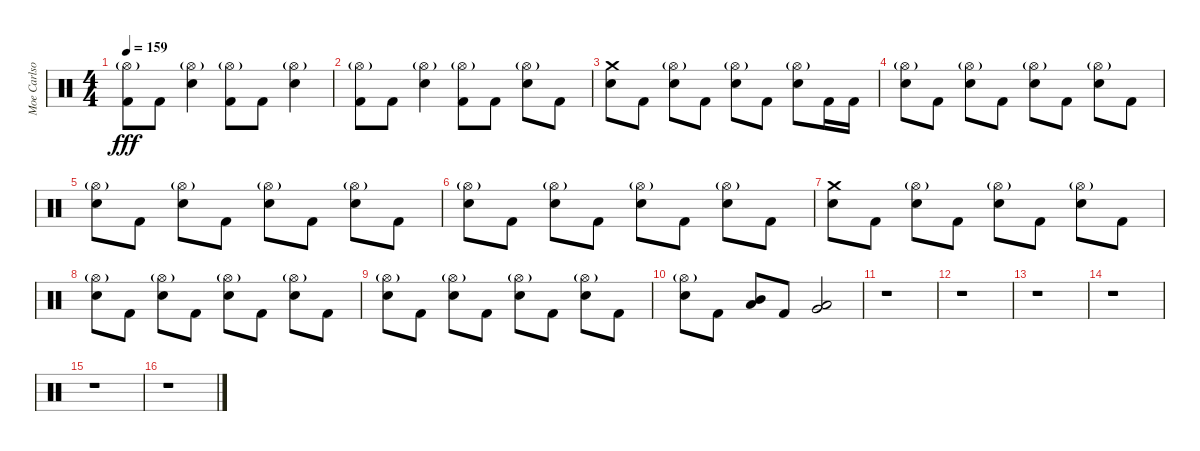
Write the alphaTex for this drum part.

\track ("Moe Carlson" "Moe Carlso") {instrument percussion}
\staff {score}
\articulation defaults
\ts (4 4)
\tempo 159
\clef neutral
\ks c
("Hi-Hat (open)"{g} "Kick (hit) 2").8{dy fff} "Kick (hit) 2".8 ("Hi-Hat (open)"{g} "Electric Snare (hit)").4 ("Hi-Hat (open)"{g} "Kick (hit) 2").8 "Kick (hit) 2".8 ("Hi-Hat (open)"{g} "Electric Snare (hit)").4 |
("Hi-Hat (open)"{g} "Kick (hit) 2").8 "Kick (hit) 2".8 ("Hi-Hat (open)"{g} "Electric Snare (hit)").4 ("Hi-Hat (open)"{g} "Kick (hit) 2").8 "Kick (hit) 2".8 ("Hi-Hat (open)"{g} "Electric Snare (hit)").8 "Kick (hit) 2".8 |
("Crash medium (hit)" "Electric Snare (hit)").8 "Kick (hit) 2".8 ("Hi-Hat (open)"{g} "Electric Snare (hit)").8 "Kick (hit) 2".8 ("Hi-Hat (open)"{g} "Electric Snare (hit)").8 "Kick (hit) 2".8 ("Hi-Hat (open)"{g} "Electric Snare (hit)").8 "Kick (hit) 2".16 "Kick (hit) 2".16 |
("Hi-Hat (open)"{g} "Electric Snare (hit)").8 "Kick (hit) 2".8 ("Hi-Hat (open)"{g} "Electric Snare (hit)").8 "Kick (hit) 2".8 ("Hi-Hat (open)"{g} "Electric Snare (hit)").8 "Kick (hit) 2".8 ("Hi-Hat (open)"{g} "Electric Snare (hit)").8 "Kick (hit) 2".8 |
("Hi-Hat (open)"{g} "Electric Snare (hit)").8 "Kick (hit) 2".8 ("Hi-Hat (open)"{g} "Electric Snare (hit)").8 "Kick (hit) 2".8 ("Hi-Hat (open)"{g} "Electric Snare (hit)").8 "Kick (hit) 2".8 ("Hi-Hat (open)"{g} "Electric Snare (hit)").8 "Kick (hit) 2".8 |
("Hi-Hat (open)"{g} "Electric Snare (hit)").8 "Kick (hit) 2".8 ("Hi-Hat (open)"{g} "Electric Snare (hit)").8 "Kick (hit) 2".8 ("Hi-Hat (open)"{g} "Electric Snare (hit)").8 "Kick (hit) 2".8 ("Hi-Hat (open)"{g} "Electric Snare (hit)").8 "Kick (hit) 2".8 |
("Crash medium (hit)" "Electric Snare (hit)").8 "Kick (hit) 2".8 ("Hi-Hat (open)"{g} "Electric Snare (hit)").8 "Kick (hit) 2".8 ("Hi-Hat (open)"{g} "Electric Snare (hit)").8 "Kick (hit) 2".8 ("Hi-Hat (open)"{g} "Electric Snare (hit)").8 "Kick (hit) 2".8 |
("Hi-Hat (open)"{g} "Electric Snare (hit)").8 "Kick (hit) 2".8 ("Hi-Hat (open)"{g} "Electric Snare (hit)").8 "Kick (hit) 2".8 ("Hi-Hat (open)"{g} "Electric Snare (hit)").8 "Kick (hit) 2".8 ("Hi-Hat (open)"{g} "Electric Snare (hit)").8 "Kick (hit) 2".8 |
("Hi-Hat (open)"{g} "Electric Snare (hit)").8 "Kick (hit) 2".8 ("Hi-Hat (open)"{g} "Electric Snare (hit)").8 "Kick (hit) 2".8 ("Hi-Hat (open)"{g} "Electric Snare (hit)").8 "Kick (hit) 2".8 ("Hi-Hat (open)"{g} "Electric Snare (hit)").8 "Kick (hit) 2".8 |
("Hi-Hat (open)"{g} "Electric Snare (hit)").8 "Kick (hit) 2".8 ("Mid Tom (hit)" "Low Tom (hit)").8 "Kick (hit) 2".8 ("Low Tom (hit)" "Very Low Tom (hit)").2 |
r.1 |
r.1 |
r.1 |
r.1 |
r.1 |
r.1
